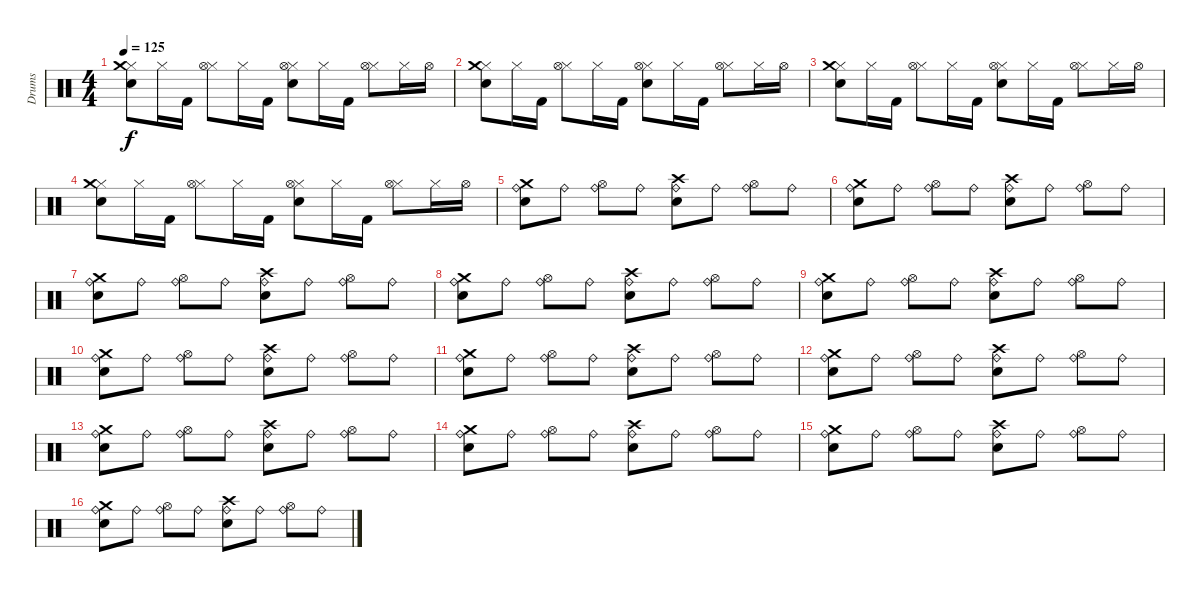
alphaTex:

\track ("Drums" "Drums") {instrument percussion}
\staff {score}
\articulation defaults
\ts (4 4)
\tempo 125
\clef neutral
\ks c
("Hi-Hat (closed)" "Snare (hit) 2" "Crash medium (hit)").8{dy f} "Hi-Hat (closed)".16 "Kick (hit) 2".16 ("Hi-Hat (closed)" "Hi-Hat (open)").8 "Hi-Hat (closed)".16 "Kick (hit) 2".16 ("Hi-Hat (closed)" "Hi-Hat (open)" "Snare (hit) 2").8 "Hi-Hat (closed)".16 "Kick (hit) 2".16 ("Hi-Hat (closed)" "Hi-Hat (open)").8 "Hi-Hat (closed)".16 "Hi-Hat (open)".16 |
("Hi-Hat (closed)" "Snare (hit) 2" "Crash medium (hit)").8 "Hi-Hat (closed)".16 "Kick (hit) 2".16 ("Hi-Hat (closed)" "Hi-Hat (open)").8 "Hi-Hat (closed)".16 "Kick (hit) 2".16 ("Hi-Hat (closed)" "Hi-Hat (open)" "Snare (hit) 2").8 "Hi-Hat (closed)".16 "Kick (hit) 2".16 ("Hi-Hat (closed)" "Hi-Hat (open)").8 "Hi-Hat (closed)".16 "Hi-Hat (open)".16 |
("Hi-Hat (closed)" "Snare (hit) 2" "Crash medium (hit)").8 "Hi-Hat (closed)".16 "Kick (hit) 2".16 ("Hi-Hat (closed)" "Hi-Hat (open)").8 "Hi-Hat (closed)".16 "Kick (hit) 2".16 ("Hi-Hat (closed)" "Hi-Hat (open)" "Snare (hit) 2").8 "Hi-Hat (closed)".16 "Kick (hit) 2".16 ("Hi-Hat (closed)" "Hi-Hat (open)").8 "Hi-Hat (closed)".16 "Hi-Hat (open)".16 |
("Hi-Hat (closed)" "Snare (hit) 2" "Crash medium (hit)").8 "Hi-Hat (closed)".16 "Kick (hit) 2".16 ("Hi-Hat (closed)" "Hi-Hat (open)").8 "Hi-Hat (closed)".16 "Kick (hit) 2".16 ("Hi-Hat (closed)" "Hi-Hat (open)" "Snare (hit) 2").8 "Hi-Hat (closed)".16 "Kick (hit) 2".16 ("Hi-Hat (closed)" "Hi-Hat (open)").8 "Hi-Hat (closed)".16 "Hi-Hat (open)".16 |
("Ride (bell)" "Snare (hit) 2" "Crash medium (hit)").8 "Ride (bell)".8 ("Ride (bell)" "Hi-Hat (open)").8 "Ride (bell)".8 ("Ride (bell)" "Snare (hit) 2" "Crash high (hit)").8 "Ride (bell)".8 ("Ride (bell)" "Hi-Hat (open)").8 "Ride (bell)".8 |
("Ride (bell)" "Snare (hit) 2" "Crash medium (hit)").8 "Ride (bell)".8 ("Ride (bell)" "Hi-Hat (open)").8 "Ride (bell)".8 ("Ride (bell)" "Snare (hit) 2" "Crash high (hit)").8 "Ride (bell)".8 ("Ride (bell)" "Hi-Hat (open)").8 "Ride (bell)".8 |
("Ride (bell)" "Snare (hit) 2" "Crash medium (hit)").8 "Ride (bell)".8 ("Ride (bell)" "Hi-Hat (open)").8 "Ride (bell)".8 ("Ride (bell)" "Snare (hit) 2" "Crash high (hit)").8 "Ride (bell)".8 ("Ride (bell)" "Hi-Hat (open)").8 "Ride (bell)".8 |
("Ride (bell)" "Snare (hit) 2" "Crash medium (hit)").8 "Ride (bell)".8 ("Ride (bell)" "Hi-Hat (open)").8 "Ride (bell)".8 ("Ride (bell)" "Snare (hit) 2" "Crash high (hit)").8 "Ride (bell)".8 ("Ride (bell)" "Hi-Hat (open)").8 "Ride (bell)".8 |
("Ride (bell)" "Snare (hit) 2" "Crash medium (hit)").8 "Ride (bell)".8 ("Ride (bell)" "Hi-Hat (open)").8 "Ride (bell)".8 ("Ride (bell)" "Snare (hit) 2" "Crash high (hit)").8 "Ride (bell)".8 ("Ride (bell)" "Hi-Hat (open)").8 "Ride (bell)".8 |
("Ride (bell)" "Snare (hit) 2" "Crash medium (hit)").8 "Ride (bell)".8 ("Ride (bell)" "Hi-Hat (open)").8 "Ride (bell)".8 ("Ride (bell)" "Snare (hit) 2" "Crash high (hit)").8 "Ride (bell)".8 ("Ride (bell)" "Hi-Hat (open)").8 "Ride (bell)".8 |
("Ride (bell)" "Snare (hit) 2" "Crash medium (hit)").8 "Ride (bell)".8 ("Ride (bell)" "Hi-Hat (open)").8 "Ride (bell)".8 ("Ride (bell)" "Snare (hit) 2" "Crash high (hit)").8 "Ride (bell)".8 ("Ride (bell)" "Hi-Hat (open)").8 "Ride (bell)".8 |
("Ride (bell)" "Snare (hit) 2" "Crash medium (hit)").8 "Ride (bell)".8 ("Ride (bell)" "Hi-Hat (open)").8 "Ride (bell)".8 ("Ride (bell)" "Snare (hit) 2" "Crash high (hit)").8 "Ride (bell)".8 ("Ride (bell)" "Hi-Hat (open)").8 "Ride (bell)".8 |
("Ride (bell)" "Snare (hit) 2" "Crash medium (hit)").8 "Ride (bell)".8 ("Ride (bell)" "Hi-Hat (open)").8 "Ride (bell)".8 ("Ride (bell)" "Snare (hit) 2" "Crash high (hit)").8 "Ride (bell)".8 ("Ride (bell)" "Hi-Hat (open)").8 "Ride (bell)".8 |
("Ride (bell)" "Snare (hit) 2" "Crash medium (hit)").8 "Ride (bell)".8 ("Ride (bell)" "Hi-Hat (open)").8 "Ride (bell)".8 ("Ride (bell)" "Snare (hit) 2" "Crash high (hit)").8 "Ride (bell)".8 ("Ride (bell)" "Hi-Hat (open)").8 "Ride (bell)".8 |
("Ride (bell)" "Snare (hit) 2" "Crash medium (hit)").8 "Ride (bell)".8 ("Ride (bell)" "Hi-Hat (open)").8 "Ride (bell)".8 ("Ride (bell)" "Snare (hit) 2" "Crash high (hit)").8 "Ride (bell)".8 ("Ride (bell)" "Hi-Hat (open)").8 "Ride (bell)".8 |
("Ride (bell)" "Snare (hit) 2" "Crash medium (hit)").8 "Ride (bell)".8 ("Ride (bell)" "Hi-Hat (open)").8 "Ride (bell)".8 ("Ride (bell)" "Snare (hit) 2" "Crash high (hit)").8 "Ride (bell)".8 ("Ride (bell)" "Hi-Hat (open)").8 "Ride (bell)".8
